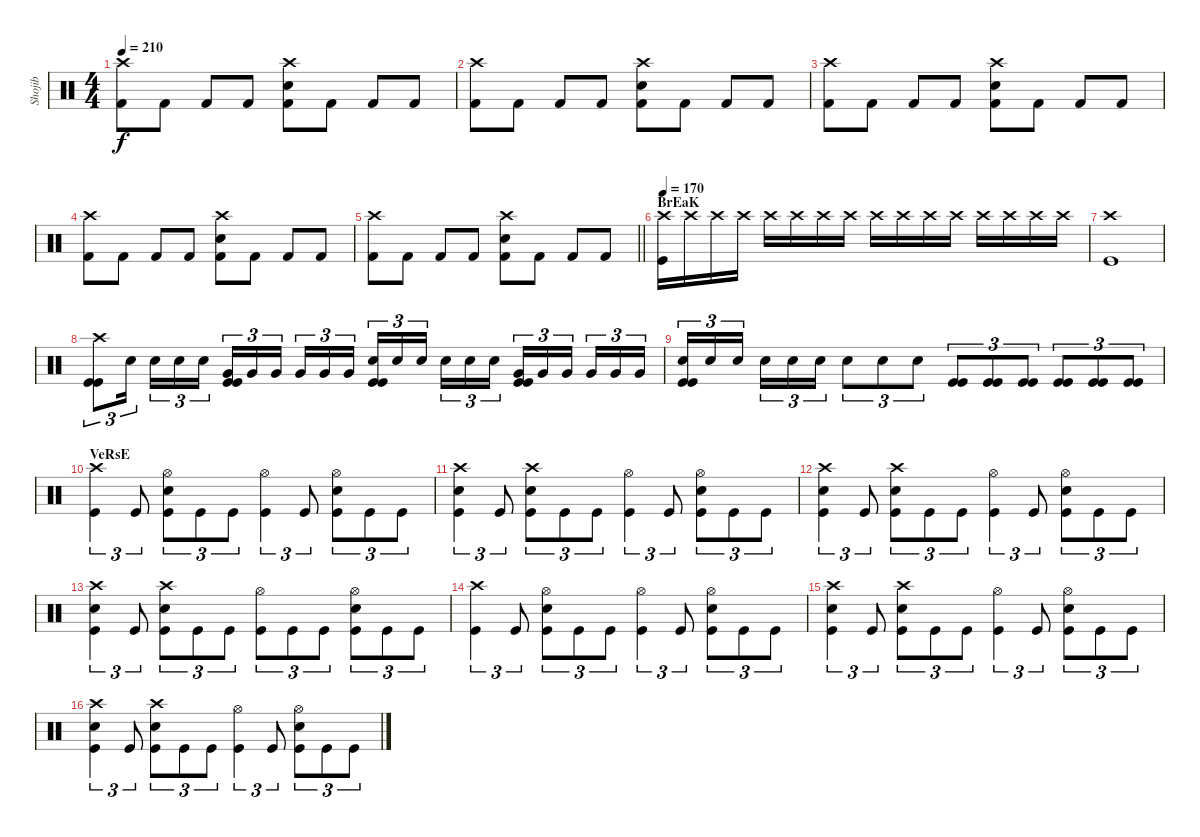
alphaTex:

\track ("Shojib" "Shojib") {instrument percussion}
\staff {score}
\articulation defaults
\ts (4 4)
\tempo 210
\clef neutral
\ks c
("Crash high (hit)" "Kick (hit) 2").8{dy f} "Kick (hit) 2".8 "Kick (hit) 2".8 "Kick (hit) 2".8 ("Crash high (hit)" "Electric Snare (hit)" "Kick (hit) 2").8 "Kick (hit) 2".8 "Kick (hit) 2".8 "Kick (hit) 2".8 |
("Crash high (hit)" "Kick (hit) 2").8 "Kick (hit) 2".8 "Kick (hit) 2".8 "Kick (hit) 2".8 ("Crash high (hit)" "Electric Snare (hit)" "Kick (hit) 2").8 "Kick (hit) 2".8 "Kick (hit) 2".8 "Kick (hit) 2".8 |
("Crash high (hit)" "Kick (hit) 2").8 "Kick (hit) 2".8 "Kick (hit) 2".8 "Kick (hit) 2".8 ("Crash high (hit)" "Electric Snare (hit)" "Kick (hit) 2").8 "Kick (hit) 2".8 "Kick (hit) 2".8 "Kick (hit) 2".8 |
("Crash high (hit)" "Kick (hit) 2").8 "Kick (hit) 2".8 "Kick (hit) 2".8 "Kick (hit) 2".8 ("Crash high (hit)" "Electric Snare (hit)" "Kick (hit) 2").8 "Kick (hit) 2".8 "Kick (hit) 2".8 "Kick (hit) 2".8 |
\barLineRight lightlight
("Crash high (hit)" "Kick (hit) 2").8 "Kick (hit) 2".8 "Kick (hit) 2".8 "Kick (hit) 2".8 ("Crash high (hit)" "Electric Snare (hit)" "Kick (hit) 2").8 "Kick (hit) 2".8 "Kick (hit) 2".8 "Kick (hit) 2".8 |
\section ("" "BrEaK")
\tempo 170
("Crash high (hit)" "Kick (hit)").16 "Crash high (hit)".16 "Crash high (hit)".16 "Crash high (hit)".16 "Crash high (hit)".16{volume 15} "Crash high (hit)".16 "Crash high (hit)".16 "Crash high (hit)".16 "Crash high (hit)".16{volume 14} "Crash high (hit)".16 "Crash high (hit)".16 "Crash high (hit)".16 "Crash high (hit)".16{volume 13} "Crash high (hit)".16 "Crash high (hit)".16 "Crash high (hit)".16 |
("Crash high (hit)" "Kick (hit)").1{volume 16} |
("Crash high (hit)" "Kick (hit)" "Kick (hit)").8{tu (3 2)} "Electric Snare (hit)".16{tu (3 2)} "Electric Snare (hit)".16{tu (3 2)} "Electric Snare (hit)".16{tu (3 2)} "Electric Snare (hit)".16{tu (3 2)} ("Very Low Tom (hit)" "Kick (hit)" "Kick (hit)").16{tu (3 2)} "Very Low Tom (hit)".16{tu (3 2)} "Very Low Tom (hit)".16{tu (3 2)} "Very Low Tom (hit)".16{tu (3 2)} "Very Low Tom (hit)".16{tu (3 2)} "Very Low Tom (hit)".16{tu (3 2)} ("Electric Snare (hit)" "Kick (hit)" "Kick (hit)").16{tu (3 2)} "Electric Snare (hit)".16{tu (3 2)} "Electric Snare (hit)".16{tu (3 2)} "Electric Snare (hit)".16{tu (3 2)} "Electric Snare (hit)".16{tu (3 2)} "Electric Snare (hit)".16{tu (3 2)} ("Very Low Tom (hit)" "Kick (hit)" "Kick (hit)").16{tu (3 2)} "Very Low Tom (hit)".16{tu (3 2)} "Very Low Tom (hit)".16{tu (3 2)} "Very Low Tom (hit)".16{tu (3 2)} "Very Low Tom (hit)".16{tu (3 2)} "Very Low Tom (hit)".16{tu (3 2)} |
("Electric Snare (hit)" "Kick (hit)" "Kick (hit)").16{tu (3 2)} "Electric Snare (hit)".16{tu (3 2)} "Electric Snare (hit)".16{tu (3 2)} "Electric Snare (hit)".16{tu (3 2)} "Electric Snare (hit)".16{tu (3 2)} "Electric Snare (hit)".16{tu (3 2)} "Electric Snare (hit)".8{tu (3 2)} "Electric Snare (hit)".8{tu (3 2)} "Electric Snare (hit)".8{tu (3 2)} ("Kick (hit)" "Kick (hit)").8{tu (3 2)} ("Kick (hit)" "Kick (hit)").8{tu (3 2)} ("Kick (hit)" "Kick (hit)").8{tu (3 2)} ("Kick (hit)" "Kick (hit)").8{tu (3 2)} ("Kick (hit)" "Kick (hit)").8{tu (3 2)} ("Kick (hit)" "Kick (hit)").8{tu (3 2)} |
\section ("" "VeRsE")
("Crash high (hit)" "Kick (hit)").4{tu (3 2)} "Kick (hit)".8{tu (3 2)} ("Hi-Hat (open)" "Electric Snare (hit)" "Kick (hit)").8{tu (3 2)} "Kick (hit)".8{tu (3 2)} "Kick (hit)".8{tu (3 2)} ("Hi-Hat (open)" "Kick (hit)").4{tu (3 2)} "Kick (hit)".8{tu (3 2)} ("Hi-Hat (open)" "Electric Snare (hit)" "Kick (hit)").8{tu (3 2)} "Kick (hit)".8{tu (3 2)} "Kick (hit)".8{tu (3 2)} |
("Crash high (hit)" "Electric Snare (hit)" "Kick (hit)").4{tu (3 2)} "Kick (hit)".8{tu (3 2)} ("Crash high (hit)" "Electric Snare (hit)" "Kick (hit)").8{tu (3 2)} "Kick (hit)".8{tu (3 2)} "Kick (hit)".8{tu (3 2)} ("Hi-Hat (open)" "Kick (hit)").4{tu (3 2)} "Kick (hit)".8{tu (3 2)} ("Hi-Hat (open)" "Electric Snare (hit)" "Kick (hit)").8{tu (3 2)} "Kick (hit)".8{tu (3 2)} "Kick (hit)".8{tu (3 2)} |
("Crash high (hit)" "Electric Snare (hit)" "Kick (hit)").4{tu (3 2)} "Kick (hit)".8{tu (3 2)} ("Crash high (hit)" "Electric Snare (hit)" "Kick (hit)").8{tu (3 2)} "Kick (hit)".8{tu (3 2)} "Kick (hit)".8{tu (3 2)} ("Hi-Hat (open)" "Kick (hit)").4{tu (3 2)} "Kick (hit)".8{tu (3 2)} ("Hi-Hat (open)" "Electric Snare (hit)" "Kick (hit)").8{tu (3 2)} "Kick (hit)".8{tu (3 2)} "Kick (hit)".8{tu (3 2)} |
("Crash high (hit)" "Electric Snare (hit)" "Kick (hit)").4{tu (3 2)} "Kick (hit)".8{tu (3 2)} ("Crash high (hit)" "Electric Snare (hit)" "Kick (hit)").8{tu (3 2)} "Kick (hit)".8{tu (3 2)} "Kick (hit)".8{tu (3 2)} ("Hi-Hat (open)" "Kick (hit)").8{tu (3 2)} "Kick (hit)".8{tu (3 2)} "Kick (hit)".8{tu (3 2)} ("Hi-Hat (open)" "Electric Snare (hit)" "Kick (hit)").8{tu (3 2)} "Kick (hit)".8{tu (3 2)} "Kick (hit)".8{tu (3 2)} |
("Crash high (hit)" "Kick (hit)").4{tu (3 2)} "Kick (hit)".8{tu (3 2)} ("Hi-Hat (open)" "Electric Snare (hit)" "Kick (hit)").8{tu (3 2)} "Kick (hit)".8{tu (3 2)} "Kick (hit)".8{tu (3 2)} ("Hi-Hat (open)" "Kick (hit)").4{tu (3 2)} "Kick (hit)".8{tu (3 2)} ("Hi-Hat (open)" "Electric Snare (hit)" "Kick (hit)").8{tu (3 2)} "Kick (hit)".8{tu (3 2)} "Kick (hit)".8{tu (3 2)} |
("Crash high (hit)" "Electric Snare (hit)" "Kick (hit)").4{tu (3 2)} "Kick (hit)".8{tu (3 2)} ("Crash high (hit)" "Electric Snare (hit)" "Kick (hit)").8{tu (3 2)} "Kick (hit)".8{tu (3 2)} "Kick (hit)".8{tu (3 2)} ("Hi-Hat (open)" "Kick (hit)").4{tu (3 2)} "Kick (hit)".8{tu (3 2)} ("Hi-Hat (open)" "Electric Snare (hit)" "Kick (hit)").8{tu (3 2)} "Kick (hit)".8{tu (3 2)} "Kick (hit)".8{tu (3 2)} |
("Crash high (hit)" "Electric Snare (hit)" "Kick (hit)").4{tu (3 2)} "Kick (hit)".8{tu (3 2)} ("Crash high (hit)" "Electric Snare (hit)" "Kick (hit)").8{tu (3 2)} "Kick (hit)".8{tu (3 2)} "Kick (hit)".8{tu (3 2)} ("Hi-Hat (open)" "Kick (hit)").4{tu (3 2)} "Kick (hit)".8{tu (3 2)} ("Hi-Hat (open)" "Electric Snare (hit)" "Kick (hit)").8{tu (3 2)} "Kick (hit)".8{tu (3 2)} "Kick (hit)".8{tu (3 2)}
